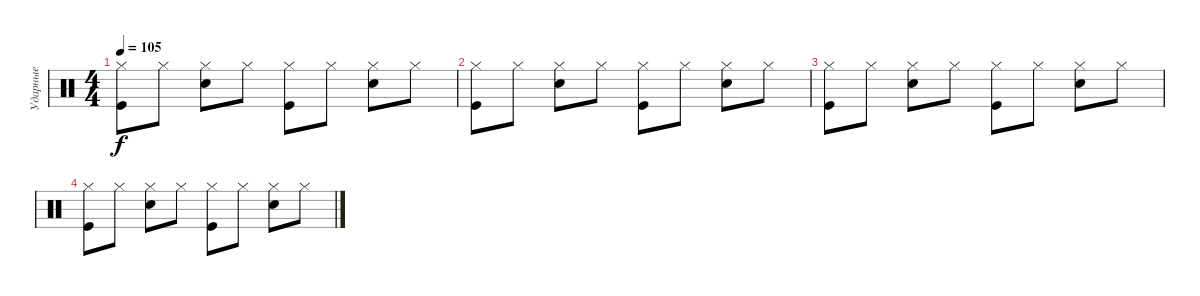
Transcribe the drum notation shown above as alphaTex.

\track ("Ударные" "Ударные") {instrument percussion}
\staff {score}
\articulation defaults
\ts (4 4)
\tempo 105
\clef neutral
\ks c
("Kick (hit)" "Hi-Hat (closed)").8{dy f} "Hi-Hat (closed)".8 ("Snare (hit) 2" "Hi-Hat (closed)").8 "Hi-Hat (closed)".8 ("Kick (hit)" "Hi-Hat (closed)").8 "Hi-Hat (closed)".8 ("Snare (hit) 2" "Hi-Hat (closed)").8 "Hi-Hat (closed)".8 |
("Kick (hit)" "Hi-Hat (closed)").8 "Hi-Hat (closed)".8 ("Snare (hit) 2" "Hi-Hat (closed)").8 "Hi-Hat (closed)".8 ("Kick (hit)" "Hi-Hat (closed)").8 "Hi-Hat (closed)".8 ("Snare (hit) 2" "Hi-Hat (closed)").8 "Hi-Hat (closed)".8 |
("Kick (hit)" "Hi-Hat (closed)").8 "Hi-Hat (closed)".8 ("Snare (hit) 2" "Hi-Hat (closed)").8 "Hi-Hat (closed)".8 ("Kick (hit)" "Hi-Hat (closed)").8 "Hi-Hat (closed)".8 ("Snare (hit) 2" "Hi-Hat (closed)").8 "Hi-Hat (closed)".8 |
("Kick (hit)" "Hi-Hat (closed)").8 "Hi-Hat (closed)".8 ("Snare (hit) 2" "Hi-Hat (closed)").8 "Hi-Hat (closed)".8 ("Kick (hit)" "Hi-Hat (closed)").8 "Hi-Hat (closed)".8 ("Snare (hit) 2" "Hi-Hat (closed)").8 "Hi-Hat (closed)".8
